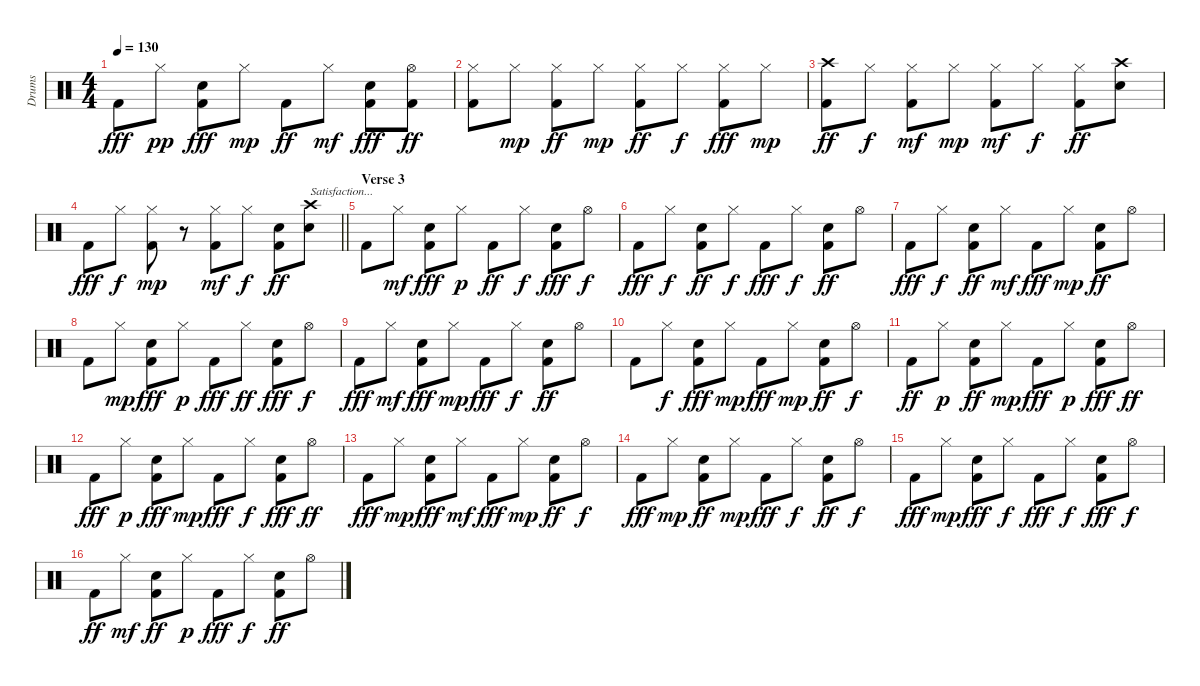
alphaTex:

\track ("Drums" "Drums") {instrument percussion}
\staff {score}
\articulation defaults
\ts (4 4)
\tempo 130
\clef neutral
\ks c "Kick (hit) 2".8{dy fff} "Hi-Hat (closed)".8{dy pp}
("Kick (hit) 2" "Snare (hit) 2").8{dy fff} "Hi-Hat (closed)".8{dy mp} "Kick (hit) 2".8{dy ff} "Hi-Hat (closed)".8{dy mf} ("Kick (hit) 2" "Snare (hit) 2").8{dy fff} ("Kick (hit) 2" "Hi-Hat (open)").8{dy ff} |
("Kick (hit) 2" "Hi-Hat (closed)").8 "Hi-Hat (closed)".8{dy mp} ("Kick (hit) 2" "Hi-Hat (closed)").8{dy ff} "Hi-Hat (closed)".8{dy mp} ("Kick (hit) 2" "Hi-Hat (closed)").8{dy ff} "Hi-Hat (closed)".8{dy f} ("Kick (hit) 2" "Hi-Hat (closed)").8{dy fff} "Hi-Hat (closed)".8{dy mp} |
("Kick (hit) 2" "Crash high (hit)").8{dy ff} "Hi-Hat (closed)".8{dy f} ("Kick (hit) 2" "Hi-Hat (closed)").8{dy mf} "Hi-Hat (closed)".8{dy mp} ("Kick (hit) 2" "Hi-Hat (closed)").8{dy mf} "Hi-Hat (closed)".8{dy f} ("Kick (hit) 2" "Hi-Hat (closed)").8{dy ff} ("Snare (hit) 2" "Crash high (hit)").8 |
\barLineRight lightlight "Kick (hit) 2".8{dy fff} "Hi-Hat (closed)".8{dy f}
("Kick (hit) 2" "Hi-Hat (closed)").8{dy mp} r.8 ("Kick (hit) 2" "Hi-Hat (closed)").8{dy mf} "Hi-Hat (closed)".8{dy f} ("Kick (hit) 2" "Snare (hit) 2").8{dy ff} ("Snare (hit) 2" "Crash high (hit)").8{txt "Satisfaction..."} |
\section ("" "Verse 3")
"Kick (hit) 2".8 "Hi-Hat (closed)".8{dy mf} ("Kick (hit) 2" "Snare (hit) 2").8{dy fff} "Hi-Hat (closed)".8{dy p} "Kick (hit) 2".8{dy ff} "Hi-Hat (closed)".8{dy f} ("Kick (hit) 2" "Snare (hit) 2").8{dy fff} "Hi-Hat (open)".8{dy f} |
"Kick (hit) 2".8{dy fff} "Hi-Hat (closed)".8{dy f} ("Kick (hit) 2" "Snare (hit) 2").8{dy ff} "Hi-Hat (closed)".8{dy f} "Kick (hit) 2".8{dy fff} "Hi-Hat (closed)".8{dy f} ("Kick (hit) 2" "Snare (hit) 2").8{dy ff} "Hi-Hat (open)".8 |
"Kick (hit) 2".8{dy fff} "Hi-Hat (closed)".8{dy f} ("Kick (hit) 2" "Snare (hit) 2").8{dy ff} "Hi-Hat (closed)".8{dy mf} "Kick (hit) 2".8{dy fff} "Hi-Hat (closed)".8{dy mp} ("Kick (hit) 2" "Snare (hit) 2").8{dy ff} "Hi-Hat (open)".8 |
"Kick (hit) 2".8 "Hi-Hat (closed)".8{dy mp} ("Kick (hit) 2" "Snare (hit) 2").8{dy fff} "Hi-Hat (closed)".8{dy p} "Kick (hit) 2".8{dy fff} "Hi-Hat (closed)".8{dy ff} ("Kick (hit) 2" "Snare (hit) 2").8{dy fff} "Hi-Hat (open)".8{dy f} |
"Kick (hit) 2".8{dy fff} "Hi-Hat (closed)".8{dy mf} ("Kick (hit) 2" "Snare (hit) 2").8{dy fff} "Hi-Hat (closed)".8{dy mp} "Kick (hit) 2".8{dy fff} "Hi-Hat (closed)".8{dy f} ("Kick (hit) 2" "Snare (hit) 2").8{dy ff} "Hi-Hat (open)".8 |
"Kick (hit) 2".8 "Hi-Hat (closed)".8{dy f} ("Kick (hit) 2" "Snare (hit) 2").8{dy fff} "Hi-Hat (closed)".8{dy mp} "Kick (hit) 2".8{dy fff} "Hi-Hat (closed)".8{dy mp} ("Kick (hit) 2" "Snare (hit) 2").8{dy ff} "Hi-Hat (open)".8{dy f} |
"Kick (hit) 2".8{dy ff} "Hi-Hat (closed)".8{dy p} ("Kick (hit) 2" "Snare (hit) 2").8{dy ff} "Hi-Hat (closed)".8{dy mp} "Kick (hit) 2".8{dy fff} "Hi-Hat (closed)".8{dy p} ("Kick (hit) 2" "Snare (hit) 2").8{dy fff} "Hi-Hat (open)".8{dy ff} |
"Kick (hit) 2".8{dy fff} "Hi-Hat (closed)".8{dy p} ("Kick (hit) 2" "Snare (hit) 2").8{dy fff} "Hi-Hat (closed)".8{dy mp} "Kick (hit) 2".8{dy fff} "Hi-Hat (closed)".8{dy f} ("Kick (hit) 2" "Snare (hit) 2").8{dy fff} "Hi-Hat (open)".8{dy ff} |
"Kick (hit) 2".8{dy fff} "Hi-Hat (closed)".8{dy mp} ("Kick (hit) 2" "Snare (hit) 2").8{dy fff} "Hi-Hat (closed)".8{dy mf} "Kick (hit) 2".8{dy fff} "Hi-Hat (closed)".8{dy mp} ("Kick (hit) 2" "Snare (hit) 2").8{dy ff} "Hi-Hat (open)".8{dy f} |
"Kick (hit) 2".8{dy fff} "Hi-Hat (closed)".8{dy mp} ("Kick (hit) 2" "Snare (hit) 2").8{dy ff} "Hi-Hat (closed)".8{dy mp} "Kick (hit) 2".8{dy fff} "Hi-Hat (closed)".8{dy f} ("Kick (hit) 2" "Snare (hit) 2").8{dy ff} "Hi-Hat (open)".8{dy f} |
"Kick (hit) 2".8{dy fff} "Hi-Hat (closed)".8{dy mp} ("Kick (hit) 2" "Snare (hit) 2").8{dy fff} "Hi-Hat (closed)".8{dy f} "Kick (hit) 2".8{dy fff} "Hi-Hat (closed)".8{dy f} ("Kick (hit) 2" "Snare (hit) 2").8{dy fff} "Hi-Hat (open)".8{dy f} |
"Kick (hit) 2".8{dy ff} "Hi-Hat (closed)".8{dy mf} ("Kick (hit) 2" "Snare (hit) 2").8{dy ff} "Hi-Hat (closed)".8{dy p} "Kick (hit) 2".8{dy fff} "Hi-Hat (closed)".8{dy f} ("Kick (hit) 2" "Snare (hit) 2").8{dy ff} "Hi-Hat (open)".8
